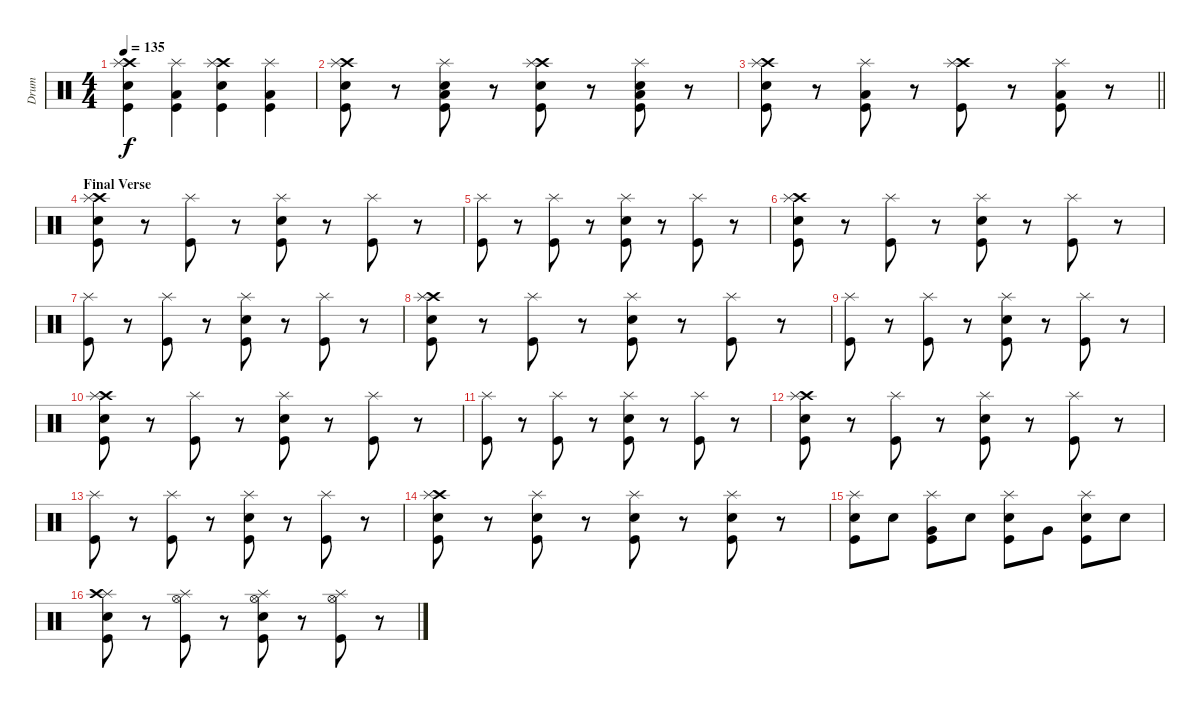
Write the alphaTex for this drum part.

\track ("Drum" "Drum") {instrument percussion}
\staff {score}
\articulation defaults
\ts (4 4)
\tempo 135
\clef neutral
\ks c
("Crash high (hit)" "Splash (hit)" "Snare (hit) 2" "Kick (hit)").4{dy f} ("Splash (hit)" "Low Tom (hit)" "Kick (hit)").4 ("Crash high (hit)" "Splash (hit)" "Snare (hit) 2" "Kick (hit)").4 ("Splash (hit)" "Low Tom (hit)" "Kick (hit)").4 |
("Crash high (hit)" "Splash (hit)" "Snare (hit) 2" "Kick (hit)").8 r.8 ("Splash (hit)" "Snare (hit) 2" "Low Tom (hit)" "Kick (hit)").8 r.8 ("Crash high (hit)" "Splash (hit)" "Snare (hit) 2" "Kick (hit)").8 r.8 ("Splash (hit)" "Snare (hit) 2" "Low Tom (hit)" "Kick (hit)").8 r.8 |
\barLineRight lightlight
("Crash high (hit)" "Splash (hit)" "Snare (hit) 2" "Kick (hit)").8 r.8 ("Splash (hit)" "Low Tom (hit)" "Kick (hit)").8 r.8 ("Crash high (hit)" "Splash (hit)" "Kick (hit)").8 r.8 ("Splash (hit)" "Low Tom (hit)" "Kick (hit)").8 r.8 |
\section ("" "Final Verse")
("Crash high (hit)" "Splash (hit)" "Snare (hit) 2" "Kick (hit)").8 r.8 ("Splash (hit)" "Kick (hit)").8 r.8 ("Splash (hit)" "Snare (hit) 2" "Kick (hit)").8 r.8 ("Splash (hit)" "Kick (hit)").8 r.8 |
("Splash (hit)" "Kick (hit)").8 r.8 ("Splash (hit)" "Kick (hit)").8 r.8 ("Splash (hit)" "Snare (hit) 2" "Kick (hit)").8 r.8 ("Splash (hit)" "Kick (hit)").8 r.8 |
("Crash high (hit)" "Splash (hit)" "Snare (hit) 2" "Kick (hit)").8 r.8 ("Splash (hit)" "Kick (hit)").8 r.8 ("Splash (hit)" "Snare (hit) 2" "Kick (hit)").8 r.8 ("Splash (hit)" "Kick (hit)").8 r.8 |
("Splash (hit)" "Kick (hit)").8 r.8 ("Splash (hit)" "Kick (hit)").8 r.8 ("Splash (hit)" "Snare (hit) 2" "Kick (hit)").8 r.8 ("Splash (hit)" "Kick (hit)").8 r.8 |
("Crash high (hit)" "Splash (hit)" "Snare (hit) 2" "Kick (hit)").8 r.8 ("Splash (hit)" "Kick (hit)").8 r.8 ("Splash (hit)" "Snare (hit) 2" "Kick (hit)").8 r.8 ("Splash (hit)" "Kick (hit)").8 r.8 |
("Splash (hit)" "Kick (hit)").8 r.8 ("Splash (hit)" "Kick (hit)").8 r.8 ("Splash (hit)" "Snare (hit) 2" "Kick (hit)").8 r.8 ("Splash (hit)" "Kick (hit)").8 r.8 |
("Crash high (hit)" "Splash (hit)" "Snare (hit) 2" "Kick (hit)").8 r.8 ("Splash (hit)" "Kick (hit)").8 r.8 ("Splash (hit)" "Snare (hit) 2" "Kick (hit)").8 r.8 ("Splash (hit)" "Kick (hit)").8 r.8 |
("Splash (hit)" "Kick (hit)").8 r.8 ("Splash (hit)" "Kick (hit)").8 r.8 ("Splash (hit)" "Snare (hit) 2" "Kick (hit)").8 r.8 ("Splash (hit)" "Kick (hit)").8 r.8 |
("Crash high (hit)" "Splash (hit)" "Snare (hit) 2" "Kick (hit)").8 r.8 ("Splash (hit)" "Kick (hit)").8 r.8 ("Splash (hit)" "Snare (hit) 2" "Kick (hit)").8 r.8 ("Splash (hit)" "Kick (hit)").8 r.8 |
("Splash (hit)" "Kick (hit)").8 r.8 ("Splash (hit)" "Kick (hit)").8 r.8 ("Splash (hit)" "Snare (hit) 2" "Kick (hit)").8 r.8 ("Splash (hit)" "Kick (hit)").8 r.8 |
("Crash high (hit)" "Splash (hit)" "Snare (hit) 2" "Kick (hit)").8 r.8 ("Splash (hit)" "Snare (hit) 2" "Kick (hit)").8 r.8 ("Splash (hit)" "Snare (hit) 2" "Kick (hit)").8 r.8 ("Splash (hit)" "Snare (hit) 2" "Kick (hit)").8 r.8 |
("Splash (hit)" "Snare (hit) 2" "Kick (hit)").8 "Snare (hit) 2".8 ("Splash (hit)" "Very Low Tom (hit)" "Kick (hit)").8 "Snare (hit) 2".8 ("Splash (hit)" "Snare (hit) 2" "Kick (hit)").8 "Very Low Tom (hit)".8 ("Splash (hit)" "Snare (hit) 2" "Kick (hit)").8 "Snare (hit) 2".8 |
("Splash (hit)" "Crash high (hit)" "Snare (hit) 2" "Kick (hit)").8 r.8 ("Splash (hit)" "Hi-Hat (open)" "Kick (hit)").8 r.8 ("Splash (hit)" "Hi-Hat (open)" "Snare (hit) 2" "Kick (hit)").8 r.8 ("Splash (hit)" "Hi-Hat (open)" "Kick (hit)").8 r.8
